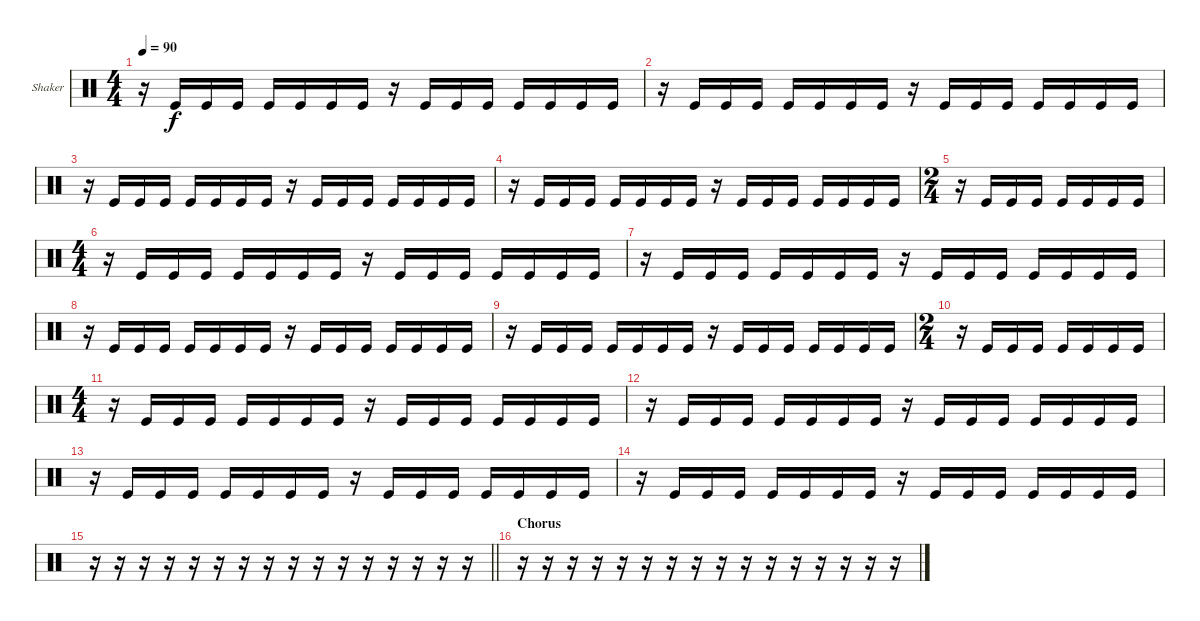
\bracketExtendMode groupsimilarinstruments
\firstSystemTrackNameOrientation horizontal
\otherSystemsTrackNameOrientation horizontal
\track ("Shaker" "Shaker") {multiBarRest instrument percussion}
\staff {score}
\articulation defaults
\ts (4 4)
\beaming (8 2 2 2 2)
\tempo 90
\clef neutral
\ks c
r.16{dy f} "Kick (hit)".16 "Kick (hit)".16 "Kick (hit)".16 "Kick (hit)".16 "Kick (hit)".16 "Kick (hit)".16 "Kick (hit)".16 r.16 "Kick (hit)".16 "Kick (hit)".16 "Kick (hit)".16 "Kick (hit)".16 "Kick (hit)".16 "Kick (hit)".16 "Kick (hit)".16 |
r.16 "Kick (hit)".16 "Kick (hit)".16 "Kick (hit)".16 "Kick (hit)".16 "Kick (hit)".16 "Kick (hit)".16 "Kick (hit)".16 r.16 "Kick (hit)".16 "Kick (hit)".16 "Kick (hit)".16 "Kick (hit)".16 "Kick (hit)".16 "Kick (hit)".16 "Kick (hit)".16 |
r.16 "Kick (hit)".16 "Kick (hit)".16 "Kick (hit)".16 "Kick (hit)".16 "Kick (hit)".16 "Kick (hit)".16 "Kick (hit)".16 r.16 "Kick (hit)".16 "Kick (hit)".16 "Kick (hit)".16 "Kick (hit)".16 "Kick (hit)".16 "Kick (hit)".16 "Kick (hit)".16 |
r.16 "Kick (hit)".16 "Kick (hit)".16 "Kick (hit)".16 "Kick (hit)".16 "Kick (hit)".16 "Kick (hit)".16 "Kick (hit)".16 r.16 "Kick (hit)".16 "Kick (hit)".16 "Kick (hit)".16 "Kick (hit)".16 "Kick (hit)".16 "Kick (hit)".16 "Kick (hit)".16 |
\ts (2 4)
\beaming (8 2 2)
r.16 "Kick (hit)".16 "Kick (hit)".16 "Kick (hit)".16 "Kick (hit)".16 "Kick (hit)".16 "Kick (hit)".16 "Kick (hit)".16 |
\ts (4 4)
\beaming (8 2 2 2 2)
r.16 "Kick (hit)".16 "Kick (hit)".16 "Kick (hit)".16 "Kick (hit)".16 "Kick (hit)".16 "Kick (hit)".16 "Kick (hit)".16 r.16 "Kick (hit)".16 "Kick (hit)".16 "Kick (hit)".16 "Kick (hit)".16 "Kick (hit)".16 "Kick (hit)".16 "Kick (hit)".16 |
r.16 "Kick (hit)".16 "Kick (hit)".16 "Kick (hit)".16 "Kick (hit)".16 "Kick (hit)".16 "Kick (hit)".16 "Kick (hit)".16 r.16 "Kick (hit)".16 "Kick (hit)".16 "Kick (hit)".16 "Kick (hit)".16 "Kick (hit)".16 "Kick (hit)".16 "Kick (hit)".16 |
r.16 "Kick (hit)".16 "Kick (hit)".16 "Kick (hit)".16 "Kick (hit)".16 "Kick (hit)".16 "Kick (hit)".16 "Kick (hit)".16 r.16 "Kick (hit)".16 "Kick (hit)".16 "Kick (hit)".16 "Kick (hit)".16 "Kick (hit)".16 "Kick (hit)".16 "Kick (hit)".16 |
r.16 "Kick (hit)".16 "Kick (hit)".16 "Kick (hit)".16 "Kick (hit)".16 "Kick (hit)".16 "Kick (hit)".16 "Kick (hit)".16 r.16 "Kick (hit)".16 "Kick (hit)".16 "Kick (hit)".16 "Kick (hit)".16 "Kick (hit)".16 "Kick (hit)".16 "Kick (hit)".16 |
\ts (2 4)
\beaming (8 2 2)
r.16 "Kick (hit)".16 "Kick (hit)".16 "Kick (hit)".16 "Kick (hit)".16 "Kick (hit)".16 "Kick (hit)".16 "Kick (hit)".16 |
\ts (4 4)
\beaming (8 2 2 2 2)
r.16 "Kick (hit)".16 "Kick (hit)".16 "Kick (hit)".16 "Kick (hit)".16 "Kick (hit)".16 "Kick (hit)".16 "Kick (hit)".16 r.16 "Kick (hit)".16 "Kick (hit)".16 "Kick (hit)".16 "Kick (hit)".16 "Kick (hit)".16 "Kick (hit)".16 "Kick (hit)".16 |
r.16 "Kick (hit)".16 "Kick (hit)".16 "Kick (hit)".16 "Kick (hit)".16 "Kick (hit)".16 "Kick (hit)".16 "Kick (hit)".16 r.16 "Kick (hit)".16 "Kick (hit)".16 "Kick (hit)".16 "Kick (hit)".16 "Kick (hit)".16 "Kick (hit)".16 "Kick (hit)".16 |
r.16 "Kick (hit)".16 "Kick (hit)".16 "Kick (hit)".16 "Kick (hit)".16 "Kick (hit)".16 "Kick (hit)".16 "Kick (hit)".16 r.16 "Kick (hit)".16 "Kick (hit)".16 "Kick (hit)".16 "Kick (hit)".16 "Kick (hit)".16 "Kick (hit)".16 "Kick (hit)".16 |
r.16 "Kick (hit)".16 "Kick (hit)".16 "Kick (hit)".16 "Kick (hit)".16 "Kick (hit)".16 "Kick (hit)".16 "Kick (hit)".16 r.16 "Kick (hit)".16 "Kick (hit)".16 "Kick (hit)".16 "Kick (hit)".16 "Kick (hit)".16 "Kick (hit)".16 "Kick (hit)".16 |
\barLineRight lightlight
r.16 r.16 r.16 r.16 r.16 r.16 r.16 r.16 r.16 r.16 r.16 r.16 r.16 r.16 r.16 r.16 |
\section ("" "Chorus")
r.16 r.16 r.16 r.16 r.16 r.16 r.16 r.16 r.16 r.16 r.16 r.16 r.16 r.16 r.16 r.16
